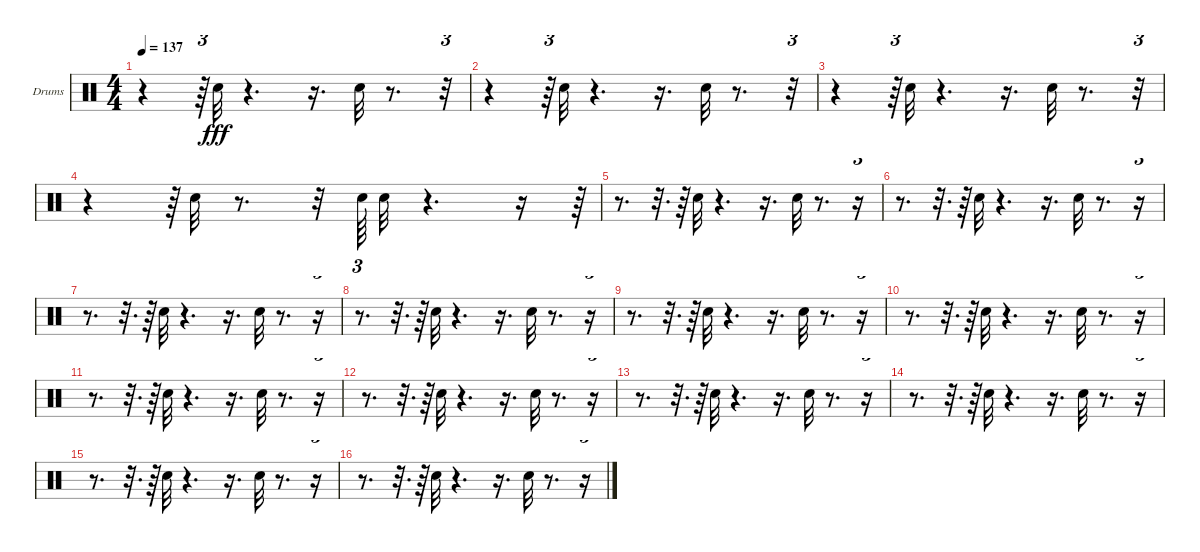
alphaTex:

\bracketExtendMode groupsimilarinstruments
\firstSystemTrackNameOrientation horizontal
\otherSystemsTrackNameOrientation horizontal
\track ("Drumkit" "Drums") {instrument percussion}
\staff {score}
\articulation defaults
\ts (4 4)
\tempo 137
\clef neutral
\ks c
r.4{dy fff} r.64{tu (3 2)} "Snare (hit) 2".32 r.4{d} r.16{d} "Snare (hit) 2".32 r.8{d} r.32{tu (3 2)} |
r.4 r.64{tu (3 2)} "Snare (hit) 2".32 r.4{d} r.16{d} "Snare (hit) 2".32 r.8{d} r.32{tu (3 2)} |
r.4 r.64{tu (3 2)} "Snare (hit) 2".32 r.4{d} r.16{d} "Snare (hit) 2".32 r.8{d} r.32{tu (3 2)} |
r.4 r.64{tu (3 2)} "Snare (hit) 2".32 r.8{d} r.32 "Snare (hit) 2".64{tu (3 2)} "Snare (hit) 2".32 r.4{d} r.16 r.64{tu (3 2)} |
r.8{d} r.32{d} r.64 "Snare (hit) 2".32 r.4{d} r.16{d} "Snare (hit) 2".32 r.8{d} r.16{tu (3 2)} |
r.8{d} r.32{d} r.64 "Snare (hit) 2".32 r.4{d} r.16{d} "Snare (hit) 2".32 r.8{d} r.16{tu (3 2)} |
r.8{d} r.32{d} r.64 "Snare (hit) 2".32 r.4{d} r.16{d} "Snare (hit) 2".32 r.8{d} r.16{tu (3 2)} |
r.8{d} r.32{d} r.64 "Snare (hit) 2".32 r.4{d} r.16{d} "Snare (hit) 2".32 r.8{d} r.16{tu (3 2)} |
r.8{d} r.32{d} r.64 "Snare (hit) 2".32 r.4{d} r.16{d} "Snare (hit) 2".32 r.8{d} r.16{tu (3 2)} |
r.8{d} r.32{d} r.64 "Snare (hit) 2".32 r.4{d} r.16{d} "Snare (hit) 2".32 r.8{d} r.16{tu (3 2)} |
r.8{d} r.32{d} r.64 "Snare (hit) 2".32 r.4{d} r.16{d} "Snare (hit) 2".32 r.8{d} r.16{tu (3 2)} |
r.8{d} r.32{d} r.64 "Snare (hit) 2".32 r.4{d} r.16{d} "Snare (hit) 2".32 r.8{d} r.16{tu (3 2)} |
r.8{d} r.32{d} r.64 "Snare (hit) 2".32 r.4{d} r.16{d} "Snare (hit) 2".32 r.8{d} r.16{tu (3 2)} |
r.8{d} r.32{d} r.64 "Snare (hit) 2".32 r.4{d} r.16{d} "Snare (hit) 2".32 r.8{d} r.16{tu (3 2)} |
r.8{d} r.32{d} r.64 "Snare (hit) 2".32 r.4{d} r.16{d} "Snare (hit) 2".32 r.8{d} r.16{tu (3 2)} |
r.8{d} r.32{d} r.64 "Snare (hit) 2".32 r.4{d} r.16{d} "Snare (hit) 2".32 r.8{d} r.16{tu (3 2)}
